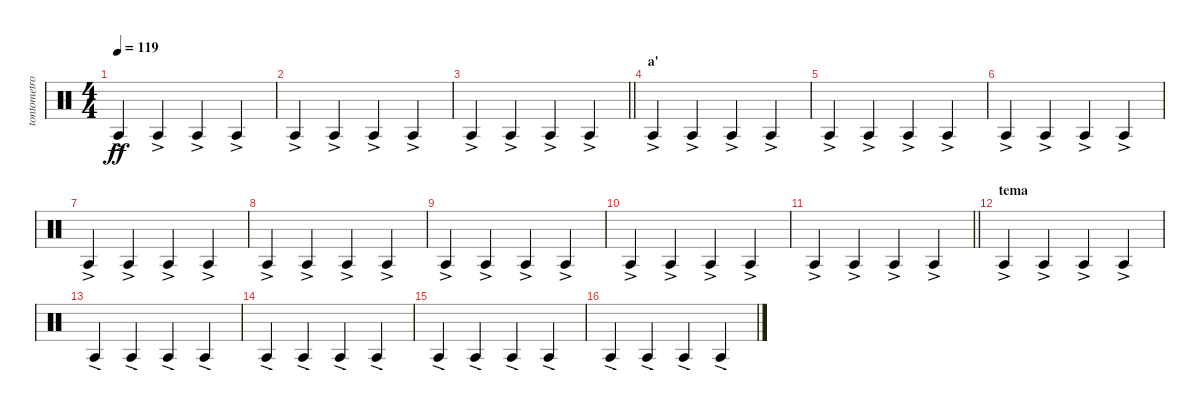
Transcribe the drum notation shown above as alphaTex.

\track ("tontometro" "tontometro") {mute instrument percussion}
\staff {score}
\articulation defaults
\ts (4 4)
\tempo 119
\clef neutral
\ks c "Agogo tow (hit)"{ac}.4{dy ff} "Agogo tow (hit)"{ac}.4 "Agogo tow (hit)"{ac}.4 "Agogo tow (hit)"{ac}.4
|
"Agogo tow (hit)"{ac}.4 "Agogo tow (hit)"{ac}.4 "Agogo tow (hit)"{ac}.4 "Agogo tow (hit)"{ac}.4 |
\barLineRight lightlight "Agogo tow (hit)"{ac}.4 "Agogo tow (hit)"{ac}.4 "Agogo tow (hit)"{ac}.4 "Agogo tow (hit)"{ac}.4
|
\section ("" "a'")
"Agogo tow (hit)"{ac}.4 "Agogo tow (hit)"{ac}.4 "Agogo tow (hit)"{ac}.4 "Agogo tow (hit)"{ac}.4 |
"Agogo tow (hit)"{ac}.4 "Agogo tow (hit)"{ac}.4 "Agogo tow (hit)"{ac}.4 "Agogo tow (hit)"{ac}.4 |
"Agogo tow (hit)"{ac}.4 "Agogo tow (hit)"{ac}.4 "Agogo tow (hit)"{ac}.4 "Agogo tow (hit)"{ac}.4 |
"Agogo tow (hit)"{ac}.4 "Agogo tow (hit)"{ac}.4 "Agogo tow (hit)"{ac}.4 "Agogo tow (hit)"{ac}.4 |
"Agogo tow (hit)"{ac}.4 "Agogo tow (hit)"{ac}.4 "Agogo tow (hit)"{ac}.4 "Agogo tow (hit)"{ac}.4 |
"Agogo tow (hit)"{ac}.4 "Agogo tow (hit)"{ac}.4 "Agogo tow (hit)"{ac}.4 "Agogo tow (hit)"{ac}.4 |
"Agogo tow (hit)"{ac}.4 "Agogo tow (hit)"{ac}.4 "Agogo tow (hit)"{ac}.4 "Agogo tow (hit)"{ac}.4 |
\barLineRight lightlight "Agogo tow (hit)"{ac}.4 "Agogo tow (hit)"{ac}.4 "Agogo tow (hit)"{ac}.4 "Agogo tow (hit)"{ac}.4
|
\section ("" "tema")
"Agogo tow (hit)"{ac}.4 "Agogo tow (hit)"{ac}.4 "Agogo tow (hit)"{ac}.4 "Agogo tow (hit)"{ac}.4 |
"Agogo tow (hit)"{ac}.4 "Agogo tow (hit)"{ac}.4 "Agogo tow (hit)"{ac}.4 "Agogo tow (hit)"{ac}.4 |
"Agogo tow (hit)"{ac}.4 "Agogo tow (hit)"{ac}.4 "Agogo tow (hit)"{ac}.4 "Agogo tow (hit)"{ac}.4 |
"Agogo tow (hit)"{ac}.4 "Agogo tow (hit)"{ac}.4 "Agogo tow (hit)"{ac}.4 "Agogo tow (hit)"{ac}.4 |
"Agogo tow (hit)"{ac}.4 "Agogo tow (hit)"{ac}.4 "Agogo tow (hit)"{ac}.4 "Agogo tow (hit)"{ac}.4
